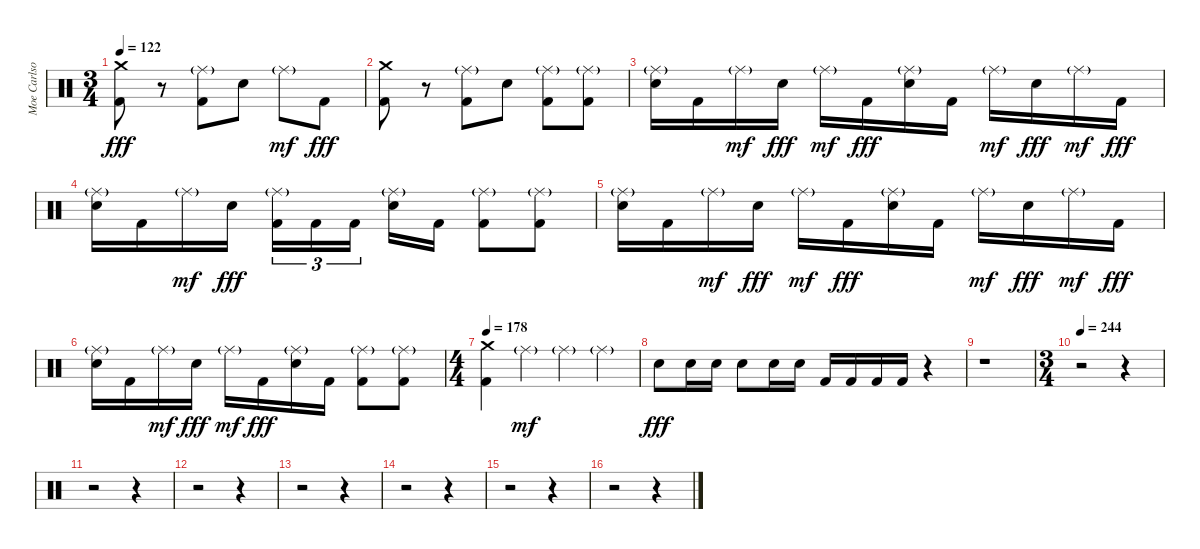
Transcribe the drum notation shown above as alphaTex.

\track ("Moe Carlson" "Moe Carlso") {instrument percussion}
\staff {score}
\articulation defaults
\ts (3 4)
\tempo 122
\clef neutral
\ks c
("Crash medium (hit)" "Kick (hit) 2").8{dy fff} r.8 ("Ride (middle)"{g} "Kick (hit) 2").8 "Electric Snare (hit)".8 "Ride (middle)"{g}.8{dy mf} "Kick (hit) 2".8{dy fff} |
("Crash medium (hit)" "Kick (hit) 2").8 r.8 ("Ride (middle)"{g} "Kick (hit) 2").8 "Electric Snare (hit)".8 ("Ride (middle)"{g} "Kick (hit) 2").8 ("Ride (middle)"{g} "Kick (hit) 2").8 |
("Ride (middle)"{g} "Electric Snare (hit)").16 "Kick (hit) 2".16 "Ride (middle)"{g}.16{dy mf} "Electric Snare (hit)".16{dy fff} "Ride (middle)"{g}.16{dy mf} "Kick (hit) 2".16{dy fff} ("Ride (middle)"{g} "Electric Snare (hit)").16 "Kick (hit) 2".16 "Ride (middle)"{g}.16{dy mf} "Electric Snare (hit)".16{dy fff} "Ride (middle)"{g}.16{dy mf} "Kick (hit) 2".16{dy fff} |
("Ride (middle)"{g} "Electric Snare (hit)").16 "Kick (hit) 2".16 "Ride (middle)"{g}.16{dy mf} "Electric Snare (hit)".16{dy fff} ("Ride (middle)"{g} "Kick (hit) 2").16{tu (3 2)} "Kick (hit) 2".16{tu (3 2)} "Kick (hit) 2".16{tu (3 2)} ("Ride (middle)"{g} "Electric Snare (hit)").16 "Kick (hit) 2".16 ("Ride (middle)"{g} "Kick (hit) 2").8 ("Ride (middle)"{g} "Kick (hit) 2").8 |
("Ride (middle)"{g} "Electric Snare (hit)").16 "Kick (hit) 2".16 "Ride (middle)"{g}.16{dy mf} "Electric Snare (hit)".16{dy fff} "Ride (middle)"{g}.16{dy mf} "Kick (hit) 2".16{dy fff} ("Ride (middle)"{g} "Electric Snare (hit)").16 "Kick (hit) 2".16 "Ride (middle)"{g}.16{dy mf} "Electric Snare (hit)".16{dy fff} "Ride (middle)"{g}.16{dy mf} "Kick (hit) 2".16{dy fff} |
("Ride (middle)"{g} "Electric Snare (hit)").16 "Kick (hit) 2".16 "Ride (middle)"{g}.16{dy mf} "Electric Snare (hit)".16{dy fff} "Ride (middle)"{g}.16{dy mf} "Kick (hit) 2".16{dy fff} ("Ride (middle)"{g} "Electric Snare (hit)").16 "Kick (hit) 2".16 ("Ride (middle)"{g} "Kick (hit) 2").8 ("Ride (middle)"{g} "Kick (hit) 2").8 |
\ts (4 4)
\tempo 178
("Crash medium (hit)" "Kick (hit) 2").4 "Ride (middle)"{g}.4{dy mf} "Ride (middle)"{g}.4 "Ride (middle)"{g}.4 |
"Electric Snare (hit)".8{dy fff} "Electric Snare (hit)".16 "Electric Snare (hit)".16 "Electric Snare (hit)".8 "Electric Snare (hit)".16 "Electric Snare (hit)".16 "Kick (hit) 2".16 "Kick (hit) 2".16 "Kick (hit) 2".16 "Kick (hit) 2".16 r.4 |
r.1 |
\ts (3 4)
\tempo 244
r.2 r.4 |
r.2 r.4 |
r.2 r.4 |
r.2 r.4 |
r.2 r.4 |
r.2 r.4 |
r.2 r.4
